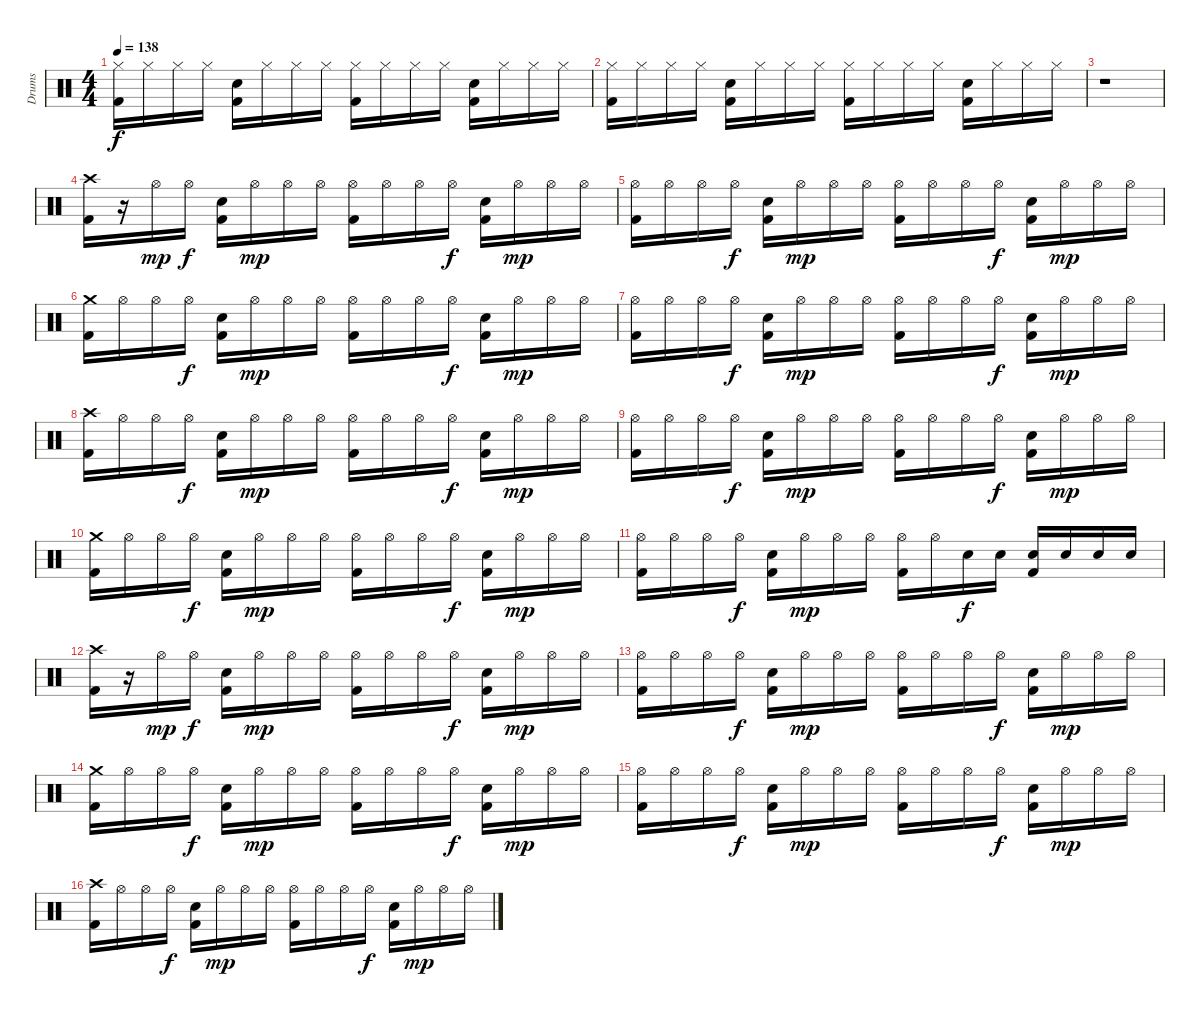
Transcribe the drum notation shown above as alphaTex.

\track ("Drums" "Drums") {instrument percussion}
\staff {score}
\articulation defaults
\ts (4 4)
\tempo 138
\clef neutral
\ks c
("Hi-Hat (closed)" "Kick (hit) 2").16{dy f} "Hi-Hat (closed)".16 "Hi-Hat (closed)".16 "Hi-Hat (closed)".16 ("Electric Snare (hit)" "Kick (hit) 2").16 "Hi-Hat (closed)".16 "Hi-Hat (closed)".16 "Hi-Hat (closed)".16 ("Hi-Hat (closed)" "Kick (hit) 2").16 "Hi-Hat (closed)".16 "Hi-Hat (closed)".16 "Hi-Hat (closed)".16 ("Electric Snare (hit)" "Kick (hit) 2").16 "Hi-Hat (closed)".16 "Hi-Hat (closed)".16 "Hi-Hat (closed)".16 |
("Hi-Hat (closed)" "Kick (hit) 2").16 "Hi-Hat (closed)".16 "Hi-Hat (closed)".16 "Hi-Hat (closed)".16 ("Electric Snare (hit)" "Kick (hit) 2").16 "Hi-Hat (closed)".16 "Hi-Hat (closed)".16 "Hi-Hat (closed)".16 ("Hi-Hat (closed)" "Kick (hit) 2").16 "Hi-Hat (closed)".16 "Hi-Hat (closed)".16 "Hi-Hat (closed)".16 ("Electric Snare (hit)" "Kick (hit) 2").16 "Hi-Hat (closed)".16 "Hi-Hat (closed)".16 "Hi-Hat (closed)".16 |
r.1 |
("Crash high (hit)" "Kick (hit) 2").16 r.16 "Hi-Hat (open)".16{dy mp} "Hi-Hat (open)".16{dy f} ("Electric Snare (hit)" "Kick (hit) 2").16 "Hi-Hat (open)".16{dy mp} "Hi-Hat (open)".16 "Hi-Hat (open)".16 ("Hi-Hat (open)" "Kick (hit) 2").16 "Hi-Hat (open)".16 "Hi-Hat (open)".16 "Hi-Hat (open)".16{dy f} ("Electric Snare (hit)" "Kick (hit) 2").16 "Hi-Hat (open)".16{dy mp} "Hi-Hat (open)".16 "Hi-Hat (open)".16 |
("Hi-Hat (open)" "Kick (hit) 2").16 "Hi-Hat (open)".16 "Hi-Hat (open)".16 "Hi-Hat (open)".16{dy f} ("Electric Snare (hit)" "Kick (hit) 2").16 "Hi-Hat (open)".16{dy mp} "Hi-Hat (open)".16 "Hi-Hat (open)".16 ("Hi-Hat (open)" "Kick (hit) 2").16 "Hi-Hat (open)".16 "Hi-Hat (open)".16 "Hi-Hat (open)".16{dy f} ("Electric Snare (hit)" "Kick (hit) 2").16 "Hi-Hat (open)".16{dy mp} "Hi-Hat (open)".16 "Hi-Hat (open)".16 |
("Crash medium (hit)" "Kick (hit) 2").16 "Hi-Hat (open)".16 "Hi-Hat (open)".16 "Hi-Hat (open)".16{dy f} ("Electric Snare (hit)" "Kick (hit) 2").16 "Hi-Hat (open)".16{dy mp} "Hi-Hat (open)".16 "Hi-Hat (open)".16 ("Hi-Hat (open)" "Kick (hit) 2").16 "Hi-Hat (open)".16 "Hi-Hat (open)".16 "Hi-Hat (open)".16{dy f} ("Electric Snare (hit)" "Kick (hit) 2").16 "Hi-Hat (open)".16{dy mp} "Hi-Hat (open)".16 "Hi-Hat (open)".16 |
("Hi-Hat (open)" "Kick (hit) 2").16 "Hi-Hat (open)".16 "Hi-Hat (open)".16 "Hi-Hat (open)".16{dy f} ("Electric Snare (hit)" "Kick (hit) 2").16 "Hi-Hat (open)".16{dy mp} "Hi-Hat (open)".16 "Hi-Hat (open)".16 ("Hi-Hat (open)" "Kick (hit) 2").16 "Hi-Hat (open)".16 "Hi-Hat (open)".16 "Hi-Hat (open)".16{dy f} ("Electric Snare (hit)" "Kick (hit) 2").16 "Hi-Hat (open)".16{dy mp} "Hi-Hat (open)".16 "Hi-Hat (open)".16 |
("Crash high (hit)" "Kick (hit) 2").16 "Hi-Hat (open)".16 "Hi-Hat (open)".16 "Hi-Hat (open)".16{dy f} ("Electric Snare (hit)" "Kick (hit) 2").16 "Hi-Hat (open)".16{dy mp} "Hi-Hat (open)".16 "Hi-Hat (open)".16 ("Hi-Hat (open)" "Kick (hit) 2").16 "Hi-Hat (open)".16 "Hi-Hat (open)".16 "Hi-Hat (open)".16{dy f} ("Electric Snare (hit)" "Kick (hit) 2").16 "Hi-Hat (open)".16{dy mp} "Hi-Hat (open)".16 "Hi-Hat (open)".16 |
("Hi-Hat (open)" "Kick (hit) 2").16 "Hi-Hat (open)".16 "Hi-Hat (open)".16 "Hi-Hat (open)".16{dy f} ("Electric Snare (hit)" "Kick (hit) 2").16 "Hi-Hat (open)".16{dy mp} "Hi-Hat (open)".16 "Hi-Hat (open)".16 ("Hi-Hat (open)" "Kick (hit) 2").16 "Hi-Hat (open)".16 "Hi-Hat (open)".16 "Hi-Hat (open)".16{dy f} ("Electric Snare (hit)" "Kick (hit) 2").16 "Hi-Hat (open)".16{dy mp} "Hi-Hat (open)".16 "Hi-Hat (open)".16 |
("Crash medium (hit)" "Kick (hit) 2").16 "Hi-Hat (open)".16 "Hi-Hat (open)".16 "Hi-Hat (open)".16{dy f} ("Electric Snare (hit)" "Kick (hit) 2").16 "Hi-Hat (open)".16{dy mp} "Hi-Hat (open)".16 "Hi-Hat (open)".16 ("Hi-Hat (open)" "Kick (hit) 2").16 "Hi-Hat (open)".16 "Hi-Hat (open)".16 "Hi-Hat (open)".16{dy f} ("Electric Snare (hit)" "Kick (hit) 2").16 "Hi-Hat (open)".16{dy mp} "Hi-Hat (open)".16 "Hi-Hat (open)".16 |
("Hi-Hat (open)" "Kick (hit) 2").16 "Hi-Hat (open)".16 "Hi-Hat (open)".16 "Hi-Hat (open)".16{dy f} ("Electric Snare (hit)" "Kick (hit) 2").16 "Hi-Hat (open)".16{dy mp} "Hi-Hat (open)".16 "Hi-Hat (open)".16 ("Hi-Hat (open)" "Kick (hit) 2").16 "Hi-Hat (open)".16 "Electric Snare (hit)".16{dy f} "Electric Snare (hit)".16 ("Electric Snare (hit)" "Kick (hit) 2").16 "Electric Snare (hit)".16 "Electric Snare (hit)".16 "Electric Snare (hit)".16 |
("Crash high (hit)" "Kick (hit) 2").16 r.16 "Hi-Hat (open)".16{dy mp} "Hi-Hat (open)".16{dy f} ("Electric Snare (hit)" "Kick (hit) 2").16 "Hi-Hat (open)".16{dy mp} "Hi-Hat (open)".16 "Hi-Hat (open)".16 ("Hi-Hat (open)" "Kick (hit) 2").16 "Hi-Hat (open)".16 "Hi-Hat (open)".16 "Hi-Hat (open)".16{dy f} ("Electric Snare (hit)" "Kick (hit) 2").16 "Hi-Hat (open)".16{dy mp} "Hi-Hat (open)".16 "Hi-Hat (open)".16 |
("Hi-Hat (open)" "Kick (hit) 2").16 "Hi-Hat (open)".16 "Hi-Hat (open)".16 "Hi-Hat (open)".16{dy f} ("Electric Snare (hit)" "Kick (hit) 2").16 "Hi-Hat (open)".16{dy mp} "Hi-Hat (open)".16 "Hi-Hat (open)".16 ("Hi-Hat (open)" "Kick (hit) 2").16 "Hi-Hat (open)".16 "Hi-Hat (open)".16 "Hi-Hat (open)".16{dy f} ("Electric Snare (hit)" "Kick (hit) 2").16 "Hi-Hat (open)".16{dy mp} "Hi-Hat (open)".16 "Hi-Hat (open)".16 |
("Crash medium (hit)" "Kick (hit) 2").16 "Hi-Hat (open)".16 "Hi-Hat (open)".16 "Hi-Hat (open)".16{dy f} ("Electric Snare (hit)" "Kick (hit) 2").16 "Hi-Hat (open)".16{dy mp} "Hi-Hat (open)".16 "Hi-Hat (open)".16 ("Hi-Hat (open)" "Kick (hit) 2").16 "Hi-Hat (open)".16 "Hi-Hat (open)".16 "Hi-Hat (open)".16{dy f} ("Electric Snare (hit)" "Kick (hit) 2").16 "Hi-Hat (open)".16{dy mp} "Hi-Hat (open)".16 "Hi-Hat (open)".16 |
("Hi-Hat (open)" "Kick (hit) 2").16 "Hi-Hat (open)".16 "Hi-Hat (open)".16 "Hi-Hat (open)".16{dy f} ("Electric Snare (hit)" "Kick (hit) 2").16 "Hi-Hat (open)".16{dy mp} "Hi-Hat (open)".16 "Hi-Hat (open)".16 ("Hi-Hat (open)" "Kick (hit) 2").16 "Hi-Hat (open)".16 "Hi-Hat (open)".16 "Hi-Hat (open)".16{dy f} ("Electric Snare (hit)" "Kick (hit) 2").16 "Hi-Hat (open)".16{dy mp} "Hi-Hat (open)".16 "Hi-Hat (open)".16 |
("Crash high (hit)" "Kick (hit) 2").16 "Hi-Hat (open)".16 "Hi-Hat (open)".16 "Hi-Hat (open)".16{dy f} ("Electric Snare (hit)" "Kick (hit) 2").16 "Hi-Hat (open)".16{dy mp} "Hi-Hat (open)".16 "Hi-Hat (open)".16 ("Hi-Hat (open)" "Kick (hit) 2").16 "Hi-Hat (open)".16 "Hi-Hat (open)".16 "Hi-Hat (open)".16{dy f} ("Electric Snare (hit)" "Kick (hit) 2").16 "Hi-Hat (open)".16{dy mp} "Hi-Hat (open)".16 "Hi-Hat (open)".16
